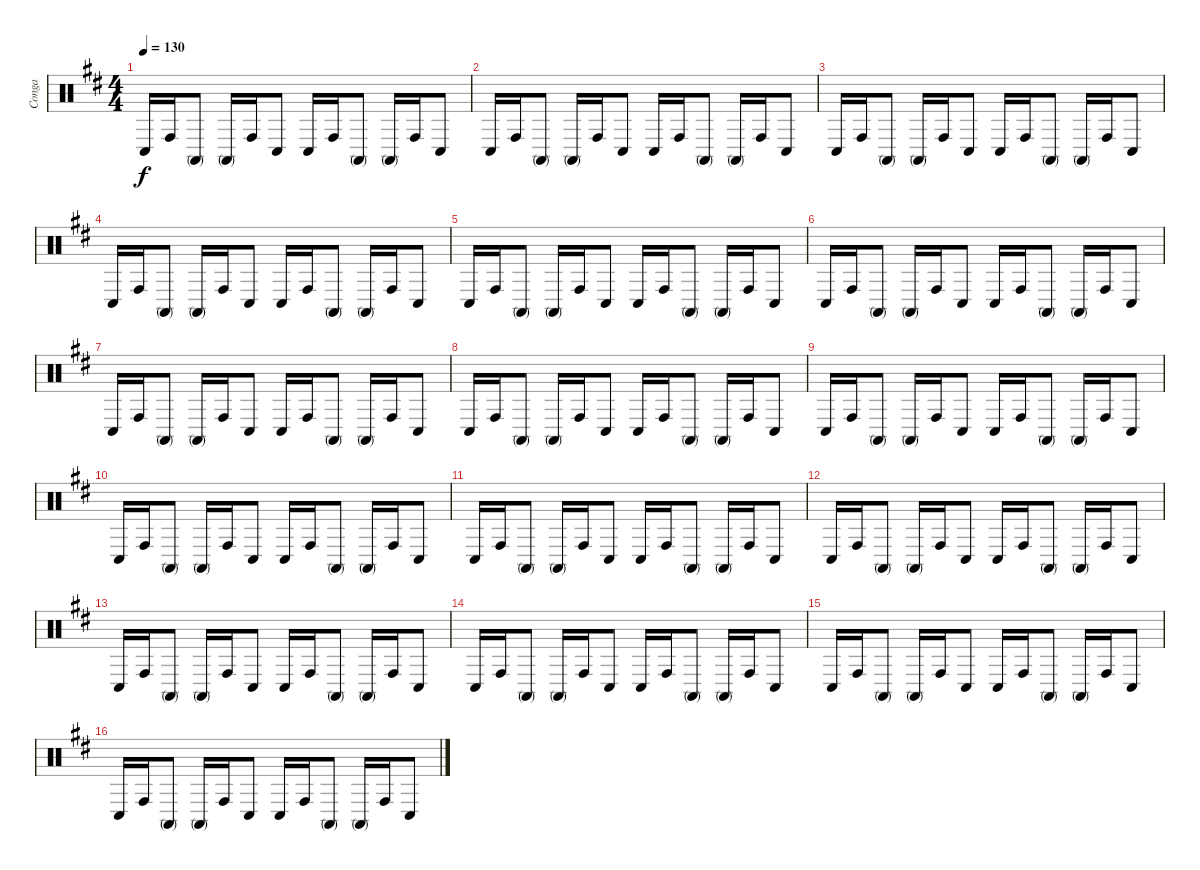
\track ("Conga" "Conga") {instrument percussion}
\staff {score}
\articulation defaults
\ts (4 4)
\tempo 130
\clef neutral
\ks d "Conga low (hit)".16{dy f} "Conga high (hit)".16 "Conga high (mute)".8 "Conga high (mute)".16 "Conga high (hit)".16 "Conga low (hit)".8 "Conga low (hit)".16 "Conga high (hit)".16 "Conga high (mute)".8 "Conga high (mute)".16 "Conga high (hit)".16 "Conga low (hit)".8
|
"Conga low (hit)".16 "Conga high (hit)".16 "Conga high (mute)".8 "Conga high (mute)".16 "Conga high (hit)".16 "Conga low (hit)".8 "Conga low (hit)".16 "Conga high (hit)".16 "Conga high (mute)".8 "Conga high (mute)".16 "Conga high (hit)".16 "Conga low (hit)".8 |
"Conga low (hit)".16 "Conga high (hit)".16 "Conga high (mute)".8 "Conga high (mute)".16 "Conga high (hit)".16 "Conga low (hit)".8 "Conga low (hit)".16 "Conga high (hit)".16 "Conga high (mute)".8 "Conga high (mute)".16 "Conga high (hit)".16 "Conga low (hit)".8 |
"Conga low (hit)".16 "Conga high (hit)".16 "Conga high (mute)".8 "Conga high (mute)".16 "Conga high (hit)".16 "Conga low (hit)".8 "Conga low (hit)".16 "Conga high (hit)".16 "Conga high (mute)".8 "Conga high (mute)".16 "Conga high (hit)".16 "Conga low (hit)".8 |
"Conga low (hit)".16 "Conga high (hit)".16 "Conga high (mute)".8 "Conga high (mute)".16 "Conga high (hit)".16 "Conga low (hit)".8 "Conga low (hit)".16 "Conga high (hit)".16 "Conga high (mute)".8 "Conga high (mute)".16 "Conga high (hit)".16 "Conga low (hit)".8 |
"Conga low (hit)".16 "Conga high (hit)".16 "Conga high (mute)".8 "Conga high (mute)".16 "Conga high (hit)".16 "Conga low (hit)".8 "Conga low (hit)".16 "Conga high (hit)".16 "Conga high (mute)".8 "Conga high (mute)".16 "Conga high (hit)".16 "Conga low (hit)".8 |
"Conga low (hit)".16 "Conga high (hit)".16 "Conga high (mute)".8 "Conga high (mute)".16 "Conga high (hit)".16 "Conga low (hit)".8 "Conga low (hit)".16 "Conga high (hit)".16 "Conga high (mute)".8 "Conga high (mute)".16 "Conga high (hit)".16 "Conga low (hit)".8 |
"Conga low (hit)".16 "Conga high (hit)".16 "Conga high (mute)".8 "Conga high (mute)".16 "Conga high (hit)".16 "Conga low (hit)".8 "Conga low (hit)".16 "Conga high (hit)".16 "Conga high (mute)".8 "Conga high (mute)".16 "Conga high (hit)".16 "Conga low (hit)".8 |
"Conga low (hit)".16 "Conga high (hit)".16 "Conga high (mute)".8 "Conga high (mute)".16 "Conga high (hit)".16 "Conga low (hit)".8 "Conga low (hit)".16 "Conga high (hit)".16 "Conga high (mute)".8 "Conga high (mute)".16 "Conga high (hit)".16 "Conga low (hit)".8 |
"Conga low (hit)".16 "Conga high (hit)".16 "Conga high (mute)".8 "Conga high (mute)".16 "Conga high (hit)".16 "Conga low (hit)".8 "Conga low (hit)".16 "Conga high (hit)".16 "Conga high (mute)".8 "Conga high (mute)".16 "Conga high (hit)".16 "Conga low (hit)".8 |
"Conga low (hit)".16 "Conga high (hit)".16 "Conga high (mute)".8 "Conga high (mute)".16 "Conga high (hit)".16 "Conga low (hit)".8 "Conga low (hit)".16 "Conga high (hit)".16 "Conga high (mute)".8 "Conga high (mute)".16 "Conga high (hit)".16 "Conga low (hit)".8 |
"Conga low (hit)".16 "Conga high (hit)".16 "Conga high (mute)".8 "Conga high (mute)".16 "Conga high (hit)".16 "Conga low (hit)".8 "Conga low (hit)".16 "Conga high (hit)".16 "Conga high (mute)".8 "Conga high (mute)".16 "Conga high (hit)".16 "Conga low (hit)".8 |
"Conga low (hit)".16 "Conga high (hit)".16 "Conga high (mute)".8 "Conga high (mute)".16 "Conga high (hit)".16 "Conga low (hit)".8 "Conga low (hit)".16 "Conga high (hit)".16 "Conga high (mute)".8 "Conga high (mute)".16 "Conga high (hit)".16 "Conga low (hit)".8 |
"Conga low (hit)".16 "Conga high (hit)".16 "Conga high (mute)".8 "Conga high (mute)".16 "Conga high (hit)".16 "Conga low (hit)".8 "Conga low (hit)".16 "Conga high (hit)".16 "Conga high (mute)".8 "Conga high (mute)".16 "Conga high (hit)".16 "Conga low (hit)".8 |
"Conga low (hit)".16 "Conga high (hit)".16 "Conga high (mute)".8 "Conga high (mute)".16 "Conga high (hit)".16 "Conga low (hit)".8 "Conga low (hit)".16 "Conga high (hit)".16 "Conga high (mute)".8 "Conga high (mute)".16 "Conga high (hit)".16 "Conga low (hit)".8 |
"Conga low (hit)".16 "Conga high (hit)".16 "Conga high (mute)".8 "Conga high (mute)".16 "Conga high (hit)".16 "Conga low (hit)".8 "Conga low (hit)".16 "Conga high (hit)".16 "Conga high (mute)".8 "Conga high (mute)".16 "Conga high (hit)".16 "Conga low (hit)".8
